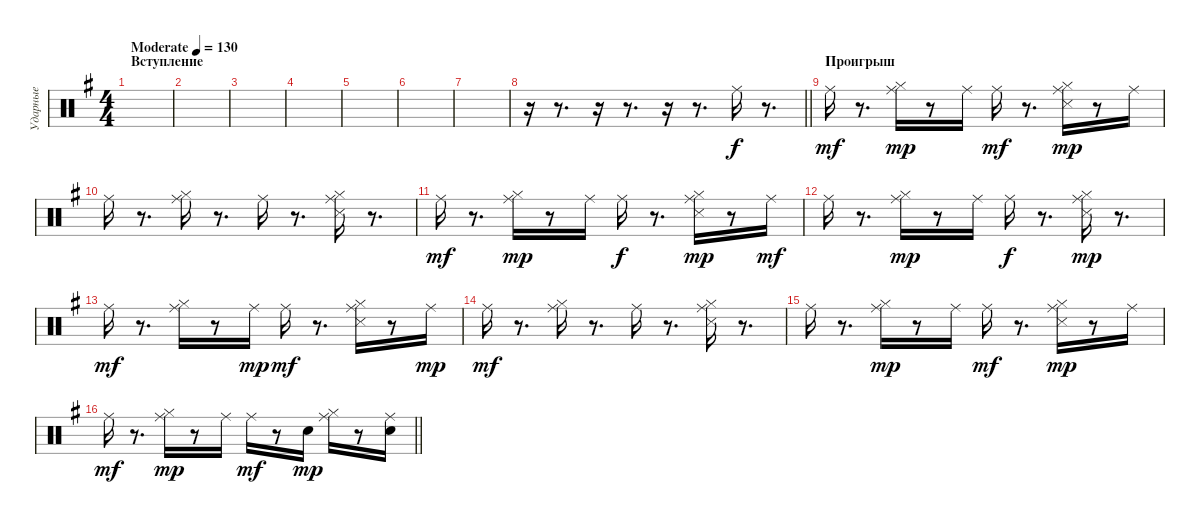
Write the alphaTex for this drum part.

\track ("Ударные" "Ударные") {instrument percussion}
\staff {score}
\articulation defaults
\ts (4 4)
\section ("" "Вступление")
\tempo (130 "Moderate")
\clef neutral
\ks eminor
|
|
|
|
|
|
|
\barLineRight lightlight
r.16 r.8{d} r.16 r.8{d} r.16 r.8{d} "Ride (middle)".16 r.8{d} |
\section ("" "Проигрыш")
"Ride (middle)".16{dy mf} r.8{d} ("Hi-Hat (closed)" "Ride (middle)").16{dy mp} r.8 "Ride (middle)".16 "Ride (middle)".16{dy mf} r.8{d} ("Hi-Hat (closed)" "Snare (side stick) 3" "Ride (middle)").16{dy mp} r.8 "Ride (middle)".16 |
"Ride (middle)".16 r.8{d} ("Hi-Hat (closed)" "Ride (middle)").16 r.8{d} "Ride (middle)".16 r.8{d} ("Hi-Hat (closed)" "Snare (side stick) 3" "Ride (middle)").16 r.8{d} |
"Ride (middle)".16{dy mf} r.8{d} ("Hi-Hat (closed)" "Ride (middle)").16{dy mp} r.8 "Ride (middle)".16 "Ride (middle)".16{dy f} r.8{d} ("Hi-Hat (closed)" "Snare (side stick) 3" "Ride (middle)").16{dy mp} r.8 "Ride (middle)".16{dy mf} |
"Ride (middle)".16 r.8{d} ("Hi-Hat (closed)" "Ride (middle)").16{dy mp} r.8 "Ride (middle)".16 "Ride (middle)".16{dy f} r.8{d} ("Hi-Hat (closed)" "Snare (side stick) 3" "Ride (middle)").16{dy mp} r.8{d} |
"Ride (middle)".16{dy mf} r.8{d} ("Hi-Hat (closed)" "Ride (middle)").16 r.8 "Ride (middle)".16{dy mp} "Ride (middle)".16{dy mf} r.8{d} ("Hi-Hat (closed)" "Snare (side stick) 3" "Ride (middle)").16 r.8 "Ride (middle)".16{dy mp} |
"Ride (middle)".16{dy mf} r.8{d} ("Hi-Hat (closed)" "Ride (middle)").16 r.8{d} "Ride (middle)".16 r.8{d} ("Hi-Hat (closed)" "Snare (side stick) 3" "Ride (middle)").16 r.8{d} |
"Ride (middle)".16 r.8{d} ("Hi-Hat (closed)" "Ride (middle)").16{dy mp} r.8 "Ride (middle)".16 "Ride (middle)".16{dy mf} r.8{d} ("Hi-Hat (closed)" "Snare (side stick) 3" "Ride (middle)").16{dy mp} r.8 "Ride (middle)".16 |
\barLineRight lightlight "Ride (middle)".16{dy mf}
r.8{d} ("Hi-Hat (closed)" "Ride (middle)").16{dy mp} r.8 "Ride (middle)".16 "Ride (middle)".16{dy mf} r.8 "Snare (hit) 2".16{dy mp} ("Hi-Hat (closed)" "Ride (middle)").16 r.8 ("Snare (hit) 2" "Ride (middle)").16
